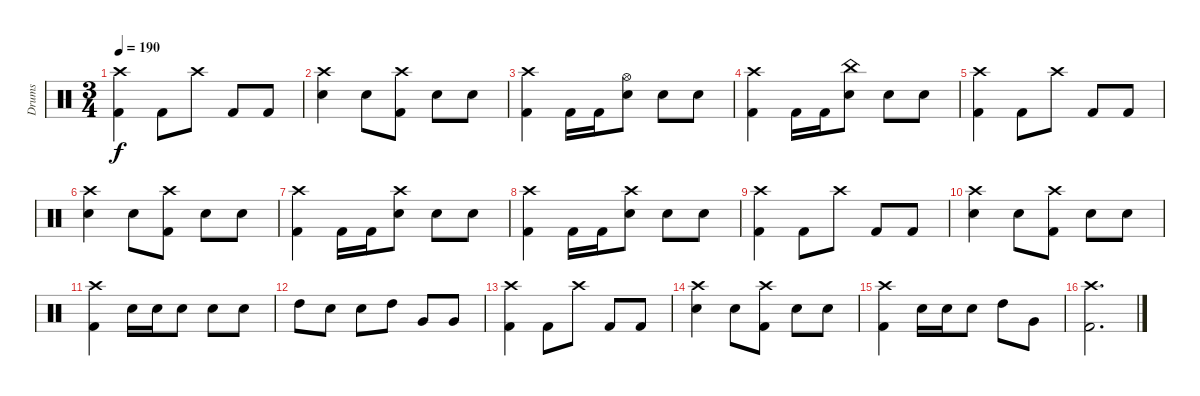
\track ("Drums" "Drums") {instrument percussion}
\staff {score}
\articulation defaults
\ts (3 4)
\tempo 190
\clef neutral
\ks c
("Crash high (hit)" "Kick (hit) 2").4{dy f} "Kick (hit) 2".8 "Crash high (hit)".8 "Kick (hit) 2".8 "Kick (hit) 2".8 |
("Crash high (hit)" "Snare (hit) 2").4 "Snare (hit) 2".8 ("Crash high (hit)" "Kick (hit) 2").8 "Snare (hit) 2".8 "Snare (hit) 2".8 |
("Crash high (hit)" "Kick (hit) 2").4 "Kick (hit) 2".16 "Kick (hit) 2".16 ("Hi-Hat (open)" "Snare (hit) 2").8 "Snare (hit) 2".8 "Snare (hit) 2".8 |
("Crash high (hit)" "Kick (hit) 2").4 "Kick (hit) 2".16 "Kick (hit) 2".16 ("China (hit)" "Snare (hit) 2").8 "Snare (hit) 2".8 "Snare (hit) 2".8 |
("Crash high (hit)" "Kick (hit) 2").4 "Kick (hit) 2".8 "Crash high (hit)".8 "Kick (hit) 2".8 "Kick (hit) 2".8 |
("Crash high (hit)" "Snare (hit) 2").4 "Snare (hit) 2".8 ("Crash high (hit)" "Kick (hit) 2").8 "Snare (hit) 2".8 "Snare (hit) 2".8 |
("Crash high (hit)" "Kick (hit) 2").4 "Kick (hit) 2".16 "Kick (hit) 2".16 ("Crash high (hit)" "Snare (hit) 2").8 "Snare (hit) 2".8 "Snare (hit) 2".8 |
("Crash high (hit)" "Kick (hit) 2").4 "Kick (hit) 2".16 "Kick (hit) 2".16 ("Crash high (hit)" "Snare (hit) 2").8 "Snare (hit) 2".8 "Snare (hit) 2".8 |
("Crash high (hit)" "Kick (hit) 2").4 "Kick (hit) 2".8 "Crash high (hit)".8 "Kick (hit) 2".8 "Kick (hit) 2".8 |
("Crash high (hit)" "Snare (hit) 2").4 "Snare (hit) 2".8 ("Crash high (hit)" "Kick (hit) 2").8 "Snare (hit) 2".8 "Snare (hit) 2".8 |
("Crash high (hit)" "Kick (hit) 2").4 "Snare (hit) 2".16 "Snare (hit) 2".16 "Snare (hit) 2".8 "Snare (hit) 2".8 "Snare (hit) 2".8 |
"High Tom (hit)".8 "Snare (hit) 2".8 "Snare (hit) 2".8 "High Tom (hit)".8 "Very Low Tom (hit)".8 "Very Low Tom (hit)".8 |
("Crash high (hit)" "Kick (hit) 2").4 "Kick (hit) 2".8 "Crash high (hit)".8 "Kick (hit) 2".8 "Kick (hit) 2".8 |
("Crash high (hit)" "Snare (hit) 2").4 "Snare (hit) 2".8 ("Crash high (hit)" "Kick (hit) 2").8 "Snare (hit) 2".8 "Snare (hit) 2".8 |
("Crash high (hit)" "Kick (hit) 2").4 "Snare (hit) 2".16 "Snare (hit) 2".16 "Snare (hit) 2".8 "High Tom (hit)".8 "Very Low Tom (hit)".8 |
("Crash high (hit)" "Kick (hit) 2").2{d}
